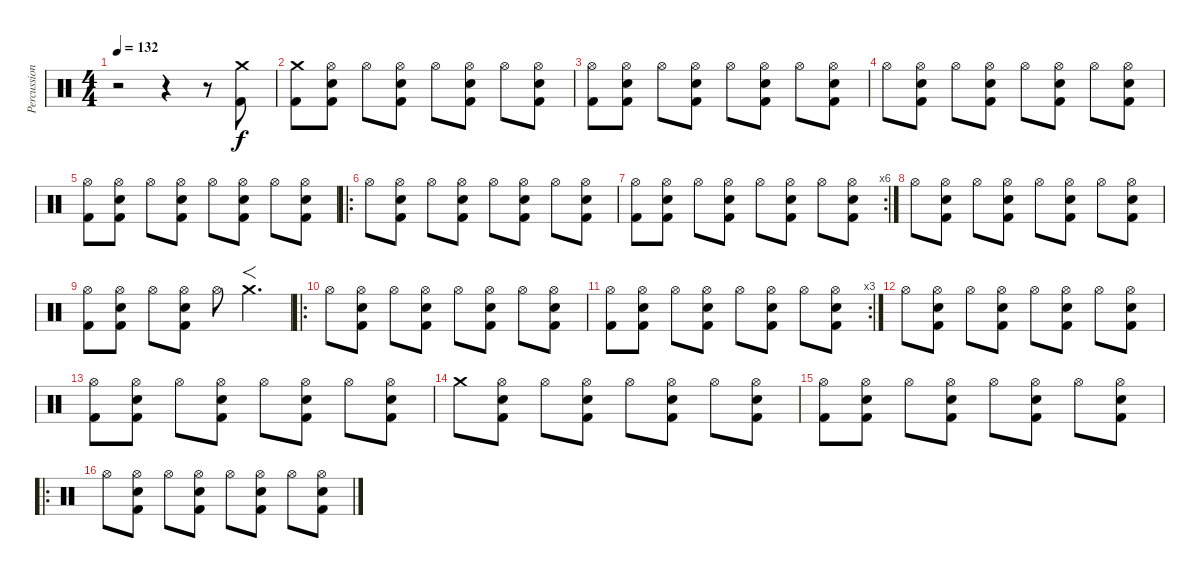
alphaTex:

\track ("Percussions" "Percussion") {instrument percussion}
\staff {score}
\articulation defaults
\ts (4 4)
\tempo 132
\clef neutral
\ks c
r.2{dy f} r.4 r.8 ("Crash medium (hit)" "Kick (hit) 2").8 |
("Crash medium (hit)" "Kick (hit) 2").8 ("Hi-Hat (open)" "Electric Snare (hit)" "Kick (hit) 2").8 "Hi-Hat (open)".8 ("Hi-Hat (open)" "Electric Snare (hit)" "Kick (hit) 2").8 "Hi-Hat (open)".8 ("Hi-Hat (open)" "Electric Snare (hit)" "Kick (hit) 2").8 "Hi-Hat (open)".8 ("Hi-Hat (open)" "Electric Snare (hit)" "Kick (hit) 2").8 |
("Hi-Hat (open)" "Kick (hit) 2").8 ("Hi-Hat (open)" "Electric Snare (hit)" "Kick (hit) 2").8 "Hi-Hat (open)".8 ("Hi-Hat (open)" "Electric Snare (hit)" "Kick (hit) 2").8 "Hi-Hat (open)".8 ("Hi-Hat (open)" "Electric Snare (hit)" "Kick (hit) 2").8 "Hi-Hat (open)".8 ("Hi-Hat (open)" "Electric Snare (hit)" "Kick (hit) 2").8 |
"Hi-Hat (open)".8 ("Hi-Hat (open)" "Electric Snare (hit)" "Kick (hit) 2").8 "Hi-Hat (open)".8 ("Hi-Hat (open)" "Electric Snare (hit)" "Kick (hit) 2").8 "Hi-Hat (open)".8 ("Hi-Hat (open)" "Electric Snare (hit)" "Kick (hit) 2").8 "Hi-Hat (open)".8 ("Hi-Hat (open)" "Electric Snare (hit)" "Kick (hit) 2").8 |
("Hi-Hat (open)" "Kick (hit) 2").8 ("Hi-Hat (open)" "Electric Snare (hit)" "Kick (hit) 2").8 "Hi-Hat (open)".8 ("Hi-Hat (open)" "Electric Snare (hit)" "Kick (hit) 2").8 "Hi-Hat (open)".8 ("Hi-Hat (open)" "Electric Snare (hit)" "Kick (hit) 2").8 "Hi-Hat (open)".8 ("Hi-Hat (open)" "Electric Snare (hit)" "Kick (hit) 2").8 |
\ro "Hi-Hat (open)".8
("Hi-Hat (open)" "Electric Snare (hit)" "Kick (hit) 2").8 "Hi-Hat (open)".8 ("Hi-Hat (open)" "Electric Snare (hit)" "Kick (hit) 2").8 "Hi-Hat (open)".8 ("Hi-Hat (open)" "Electric Snare (hit)" "Kick (hit) 2").8 "Hi-Hat (open)".8 ("Hi-Hat (open)" "Electric Snare (hit)" "Kick (hit) 2").8 |
\rc 6
("Hi-Hat (open)" "Kick (hit) 2").8 ("Hi-Hat (open)" "Electric Snare (hit)" "Kick (hit) 2").8 "Hi-Hat (open)".8 ("Hi-Hat (open)" "Electric Snare (hit)" "Kick (hit) 2").8 "Hi-Hat (open)".8 ("Hi-Hat (open)" "Electric Snare (hit)" "Kick (hit) 2").8 "Hi-Hat (open)".8 ("Hi-Hat (open)" "Electric Snare (hit)" "Kick (hit) 2").8 |
"Hi-Hat (open)".8 ("Hi-Hat (open)" "Electric Snare (hit)" "Kick (hit) 2").8 "Hi-Hat (open)".8 ("Hi-Hat (open)" "Electric Snare (hit)" "Kick (hit) 2").8 "Hi-Hat (open)".8 ("Hi-Hat (open)" "Electric Snare (hit)" "Kick (hit) 2").8 "Hi-Hat (open)".8 ("Hi-Hat (open)" "Electric Snare (hit)" "Kick (hit) 2").8 |
("Hi-Hat (open)" "Kick (hit) 2").8 ("Hi-Hat (open)" "Electric Snare (hit)" "Kick (hit) 2").8 "Hi-Hat (open)".8 ("Hi-Hat (open)" "Electric Snare (hit)" "Kick (hit) 2").8 "Hi-Hat (open)".8 "Crash medium (hit)".4{f d volume 16} |
\ro "Hi-Hat (open)".8{volume 13}
("Hi-Hat (open)" "Electric Snare (hit)" "Kick (hit) 2").8 "Hi-Hat (open)".8 ("Hi-Hat (open)" "Electric Snare (hit)" "Kick (hit) 2").8 "Hi-Hat (open)".8 ("Hi-Hat (open)" "Electric Snare (hit)" "Kick (hit) 2").8 "Hi-Hat (open)".8 ("Hi-Hat (open)" "Electric Snare (hit)" "Kick (hit) 2").8 |
\rc 3
("Hi-Hat (open)" "Kick (hit) 2").8 ("Hi-Hat (open)" "Electric Snare (hit)" "Kick (hit) 2").8 "Hi-Hat (open)".8 ("Hi-Hat (open)" "Electric Snare (hit)" "Kick (hit) 2").8 "Hi-Hat (open)".8 ("Hi-Hat (open)" "Electric Snare (hit)" "Kick (hit) 2").8 "Hi-Hat (open)".8 ("Hi-Hat (open)" "Electric Snare (hit)" "Kick (hit) 2").8 |
"Hi-Hat (open)".8 ("Hi-Hat (open)" "Electric Snare (hit)" "Kick (hit) 2").8 "Hi-Hat (open)".8 ("Hi-Hat (open)" "Electric Snare (hit)" "Kick (hit) 2").8 "Hi-Hat (open)".8 ("Hi-Hat (open)" "Electric Snare (hit)" "Kick (hit) 2").8 "Hi-Hat (open)".8 ("Hi-Hat (open)" "Electric Snare (hit)" "Kick (hit) 2").8 |
("Hi-Hat (open)" "Kick (hit) 2").8 ("Hi-Hat (open)" "Electric Snare (hit)" "Kick (hit) 2").8 "Hi-Hat (open)".8 ("Hi-Hat (open)" "Electric Snare (hit)" "Kick (hit) 2").8 "Hi-Hat (open)".8 ("Hi-Hat (open)" "Electric Snare (hit)" "Kick (hit) 2").8 "Hi-Hat (open)".8 ("Hi-Hat (open)" "Electric Snare (hit)" "Kick (hit) 2").8 |
"Crash medium (hit)".8 ("Hi-Hat (open)" "Electric Snare (hit)" "Kick (hit) 2").8 "Hi-Hat (open)".8 ("Hi-Hat (open)" "Electric Snare (hit)" "Kick (hit) 2").8 "Hi-Hat (open)".8 ("Hi-Hat (open)" "Electric Snare (hit)" "Kick (hit) 2").8 "Hi-Hat (open)".8 ("Hi-Hat (open)" "Electric Snare (hit)" "Kick (hit) 2").8 |
("Hi-Hat (open)" "Kick (hit) 2").8 ("Hi-Hat (open)" "Electric Snare (hit)" "Kick (hit) 2").8 "Hi-Hat (open)".8 ("Hi-Hat (open)" "Electric Snare (hit)" "Kick (hit) 2").8 "Hi-Hat (open)".8 ("Hi-Hat (open)" "Electric Snare (hit)" "Kick (hit) 2").8 "Hi-Hat (open)".8 ("Hi-Hat (open)" "Electric Snare (hit)" "Kick (hit) 2").8 |
\ro "Hi-Hat (open)".8
("Hi-Hat (open)" "Electric Snare (hit)" "Kick (hit) 2").8 "Hi-Hat (open)".8 ("Hi-Hat (open)" "Electric Snare (hit)" "Kick (hit) 2").8 "Hi-Hat (open)".8 ("Hi-Hat (open)" "Electric Snare (hit)" "Kick (hit) 2").8 "Hi-Hat (open)".8 ("Hi-Hat (open)" "Electric Snare (hit)" "Kick (hit) 2").8
